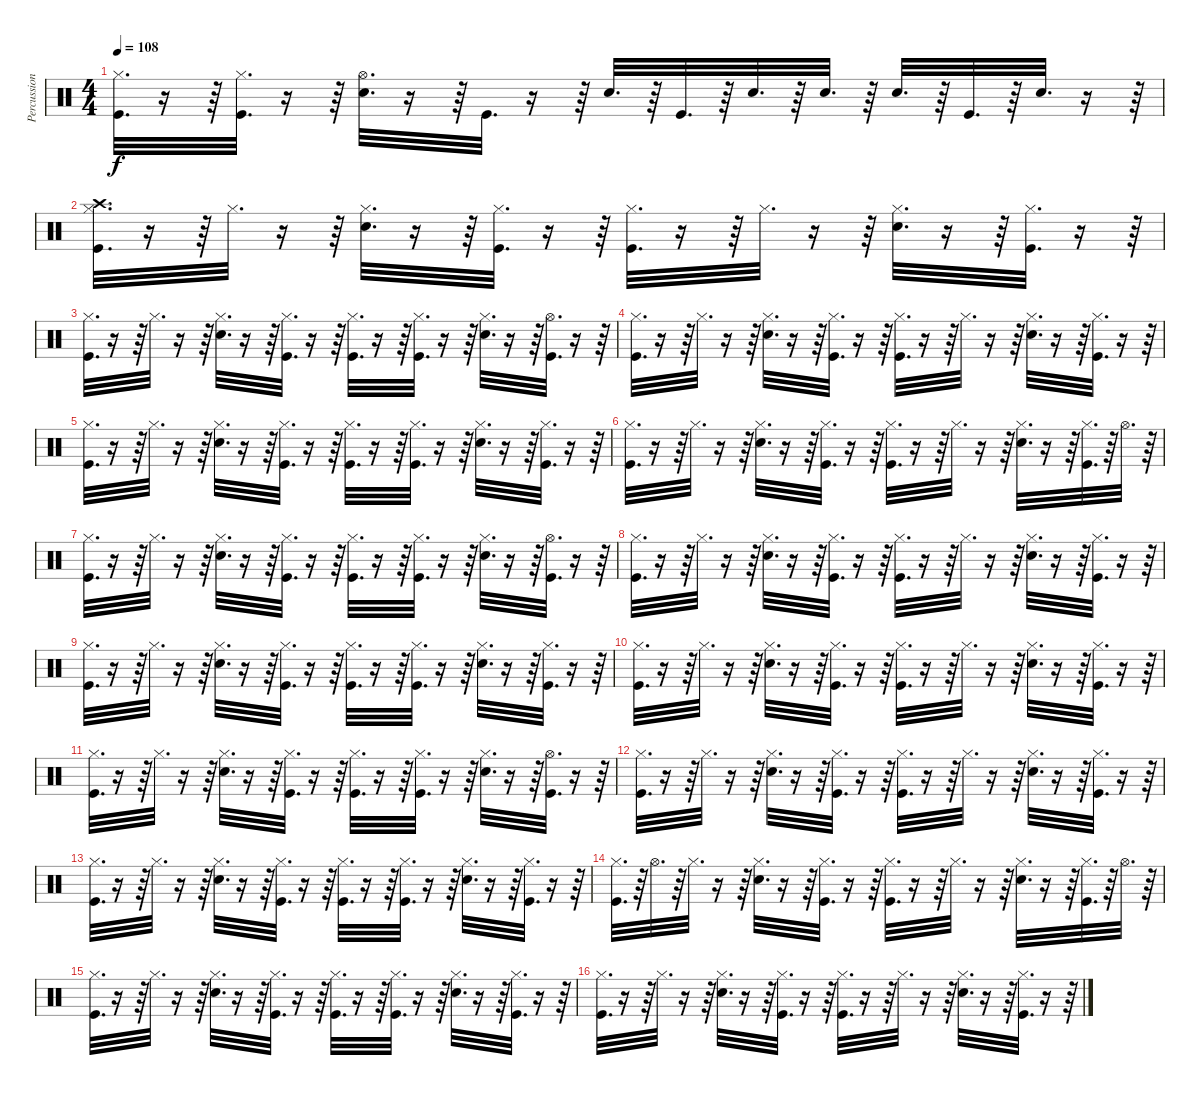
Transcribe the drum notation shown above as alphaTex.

\track ("Percussions" "Percussion") {instrument percussion}
\staff {score}
\articulation defaults
\ts (4 4)
\tempo 108
\clef neutral
\ks c
("Hi-Hat (closed)" "Kick (hit)").32{d dy f} r.16 r.64 ("Hi-Hat (closed)" "Kick (hit)").32{d} r.16 r.64 ("Hi-Hat (open)" "Snare (hit) 2").32{d} r.16 r.64 "Kick (hit)".32{d} r.16 r.64 "Snare (hit) 2".32{d} r.64 "Kick (hit)".32{d} r.64 "Snare (hit) 2".32{d} r.64 "Snare (hit) 2".32{d} r.64 "Snare (hit) 2".32{d} r.64 "Kick (hit)".32{d} r.64 "Snare (hit) 2".32{d} r.16 r.64 |
("Crash high (hit)" "Hi-Hat (closed)" "Kick (hit)").32{d} r.16 r.64 "Hi-Hat (closed)".32{d} r.16 r.64 ("Hi-Hat (closed)" "Snare (hit) 2").32{d} r.16 r.64 ("Hi-Hat (closed)" "Kick (hit)").32{d} r.16 r.64 ("Hi-Hat (closed)" "Kick (hit)").32{d} r.16 r.64 "Hi-Hat (closed)".32{d} r.16 r.64 ("Hi-Hat (closed)" "Snare (hit) 2").32{d} r.16 r.64 ("Hi-Hat (closed)" "Kick (hit)").32{d} r.16 r.64 |
("Hi-Hat (closed)" "Kick (hit)").32{d} r.16 r.64 "Hi-Hat (closed)".32{d} r.16 r.64 ("Hi-Hat (closed)" "Snare (hit) 2").32{d} r.16 r.64 ("Hi-Hat (closed)" "Kick (hit)").32{d} r.16 r.64 ("Hi-Hat (closed)" "Kick (hit)").32{d} r.16 r.64 ("Hi-Hat (closed)" "Kick (hit)").32{d} r.16 r.64 ("Hi-Hat (closed)" "Snare (hit) 2").32{d} r.16 r.64 ("Hi-Hat (open)" "Kick (hit)").32{d} r.16 r.64 |
("Hi-Hat (closed)" "Kick (hit)").32{d} r.16 r.64 "Hi-Hat (closed)".32{d} r.16 r.64 ("Hi-Hat (closed)" "Snare (hit) 2").32{d} r.16 r.64 ("Hi-Hat (closed)" "Kick (hit)").32{d} r.16 r.64 ("Hi-Hat (closed)" "Kick (hit)").32{d} r.16 r.64 "Hi-Hat (closed)".32{d} r.16 r.64 ("Hi-Hat (closed)" "Snare (hit) 2").32{d} r.16 r.64 ("Hi-Hat (closed)" "Kick (hit)").32{d} r.16 r.64 |
("Hi-Hat (closed)" "Kick (hit)").32{d} r.16 r.64 "Hi-Hat (closed)".32{d} r.16 r.64 ("Hi-Hat (closed)" "Snare (hit) 2").32{d} r.16 r.64 ("Hi-Hat (closed)" "Kick (hit)").32{d} r.16 r.64 ("Hi-Hat (closed)" "Kick (hit)").32{d} r.16 r.64 ("Hi-Hat (closed)" "Kick (hit)").32{d} r.16 r.64 ("Hi-Hat (closed)" "Snare (hit) 2").32{d} r.16 r.64 ("Hi-Hat (closed)" "Kick (hit)").32{d} r.16 r.64 |
("Hi-Hat (closed)" "Kick (hit)").32{d} r.16 r.64 "Hi-Hat (closed)".32{d} r.16 r.64 ("Hi-Hat (closed)" "Snare (hit) 2").32{d} r.16 r.64 ("Hi-Hat (closed)" "Kick (hit)").32{d} r.16 r.64 ("Hi-Hat (closed)" "Kick (hit)").32{d} r.16 r.64 "Hi-Hat (closed)".32{d} r.16 r.64 ("Hi-Hat (closed)" "Snare (hit) 2").32{d} r.16 r.64 ("Hi-Hat (closed)" "Kick (hit)").32{d} r.64 "Hi-Hat (open)".32{d} r.64 |
("Hi-Hat (closed)" "Kick (hit)").32{d} r.16 r.64 "Hi-Hat (closed)".32{d} r.16 r.64 ("Hi-Hat (closed)" "Snare (hit) 2").32{d} r.16 r.64 ("Hi-Hat (closed)" "Kick (hit)").32{d} r.16 r.64 ("Hi-Hat (closed)" "Kick (hit)").32{d} r.16 r.64 ("Hi-Hat (closed)" "Kick (hit)").32{d} r.16 r.64 ("Hi-Hat (closed)" "Snare (hit) 2").32{d} r.16 r.64 ("Hi-Hat (open)" "Kick (hit)").32{d} r.16 r.64 |
("Hi-Hat (closed)" "Kick (hit)").32{d} r.16 r.64 "Hi-Hat (closed)".32{d} r.16 r.64 ("Hi-Hat (closed)" "Snare (hit) 2").32{d} r.16 r.64 ("Hi-Hat (closed)" "Kick (hit)").32{d} r.16 r.64 ("Hi-Hat (closed)" "Kick (hit)").32{d} r.16 r.64 "Hi-Hat (closed)".32{d} r.16 r.64 ("Hi-Hat (closed)" "Snare (hit) 2").32{d} r.16 r.64 ("Hi-Hat (closed)" "Kick (hit)").32{d} r.16 r.64 |
("Hi-Hat (closed)" "Kick (hit)").32{d} r.16 r.64 "Hi-Hat (closed)".32{d} r.16 r.64 ("Hi-Hat (closed)" "Snare (hit) 2").32{d} r.16 r.64 ("Hi-Hat (closed)" "Kick (hit)").32{d} r.16 r.64 ("Hi-Hat (closed)" "Kick (hit)").32{d} r.16 r.64 ("Hi-Hat (closed)" "Kick (hit)").32{d} r.16 r.64 ("Hi-Hat (closed)" "Snare (hit) 2").32{d} r.16 r.64 ("Hi-Hat (closed)" "Kick (hit)").32{d} r.16 r.64 |
("Hi-Hat (closed)" "Kick (hit)").32{d} r.16 r.64 "Hi-Hat (closed)".32{d} r.16 r.64 ("Hi-Hat (closed)" "Snare (hit) 2").32{d} r.16 r.64 ("Hi-Hat (closed)" "Kick (hit)").32{d} r.16 r.64 ("Hi-Hat (closed)" "Kick (hit)").32{d} r.16 r.64 "Hi-Hat (closed)".32{d} r.16 r.64 ("Hi-Hat (closed)" "Snare (hit) 2").32{d} r.16 r.64 ("Hi-Hat (closed)" "Kick (hit)").32{d} r.16 r.64 |
("Hi-Hat (closed)" "Kick (hit)").32{d} r.16 r.64 "Hi-Hat (closed)".32{d} r.16 r.64 ("Hi-Hat (closed)" "Snare (hit) 2").32{d} r.16 r.64 ("Hi-Hat (closed)" "Kick (hit)").32{d} r.16 r.64 ("Hi-Hat (closed)" "Kick (hit)").32{d} r.16 r.64 ("Hi-Hat (closed)" "Kick (hit)").32{d} r.16 r.64 ("Hi-Hat (closed)" "Snare (hit) 2").32{d} r.16 r.64 ("Hi-Hat (open)" "Kick (hit)").32{d} r.16 r.64 |
("Hi-Hat (closed)" "Kick (hit)").32{d} r.16 r.64 "Hi-Hat (closed)".32{d} r.16 r.64 ("Hi-Hat (closed)" "Snare (hit) 2").32{d} r.16 r.64 ("Hi-Hat (closed)" "Kick (hit)").32{d} r.16 r.64 ("Hi-Hat (closed)" "Kick (hit)").32{d} r.16 r.64 "Hi-Hat (closed)".32{d} r.16 r.64 ("Hi-Hat (closed)" "Snare (hit) 2").32{d} r.16 r.64 ("Hi-Hat (closed)" "Kick (hit)").32{d} r.16 r.64 |
("Hi-Hat (closed)" "Kick (hit)").32{d} r.16 r.64 "Hi-Hat (closed)".32{d} r.16 r.64 ("Hi-Hat (closed)" "Snare (hit) 2").32{d} r.16 r.64 ("Hi-Hat (closed)" "Kick (hit)").32{d} r.16 r.64 ("Hi-Hat (closed)" "Kick (hit)").32{d} r.16 r.64 ("Hi-Hat (closed)" "Kick (hit)").32{d} r.16 r.64 ("Hi-Hat (closed)" "Snare (hit) 2").32{d} r.16 r.64 ("Hi-Hat (closed)" "Kick (hit)").32{d} r.16 r.64 |
("Hi-Hat (closed)" "Kick (hit)").32{d} r.64 "Hi-Hat (open)".32{d} r.64 "Hi-Hat (closed)".32{d} r.16 r.64 ("Hi-Hat (closed)" "Snare (hit) 2").32{d} r.16 r.64 ("Hi-Hat (closed)" "Kick (hit)").32{d} r.16 r.64 ("Hi-Hat (closed)" "Kick (hit)").32{d} r.16 r.64 "Hi-Hat (closed)".32{d} r.16 r.64 ("Hi-Hat (closed)" "Snare (hit) 2").32{d} r.16 r.64 ("Hi-Hat (closed)" "Kick (hit)").32{d} r.64 "Hi-Hat (open)".32{d} r.64 |
("Hi-Hat (closed)" "Kick (hit)").32{d} r.16 r.64 "Hi-Hat (closed)".32{d} r.16 r.64 ("Hi-Hat (closed)" "Snare (hit) 2").32{d} r.16 r.64 ("Hi-Hat (closed)" "Kick (hit)").32{d} r.16 r.64 ("Hi-Hat (closed)" "Kick (hit)").32{d} r.16 r.64 ("Hi-Hat (closed)" "Kick (hit)").32{d} r.16 r.64 ("Hi-Hat (closed)" "Snare (hit) 2").32{d} r.16 r.64 ("Hi-Hat (closed)" "Kick (hit)").32{d} r.16 r.64 |
("Hi-Hat (closed)" "Kick (hit)").32{d} r.16 r.64 "Hi-Hat (closed)".32{d} r.16 r.64 ("Hi-Hat (closed)" "Snare (hit) 2").32{d} r.16 r.64 ("Hi-Hat (closed)" "Kick (hit)").32{d} r.16 r.64 ("Hi-Hat (closed)" "Kick (hit)").32{d} r.16 r.64 "Hi-Hat (closed)".32{d} r.16 r.64 ("Hi-Hat (closed)" "Snare (hit) 2").32{d} r.16 r.64 ("Hi-Hat (closed)" "Kick (hit)").32{d} r.16 r.64
